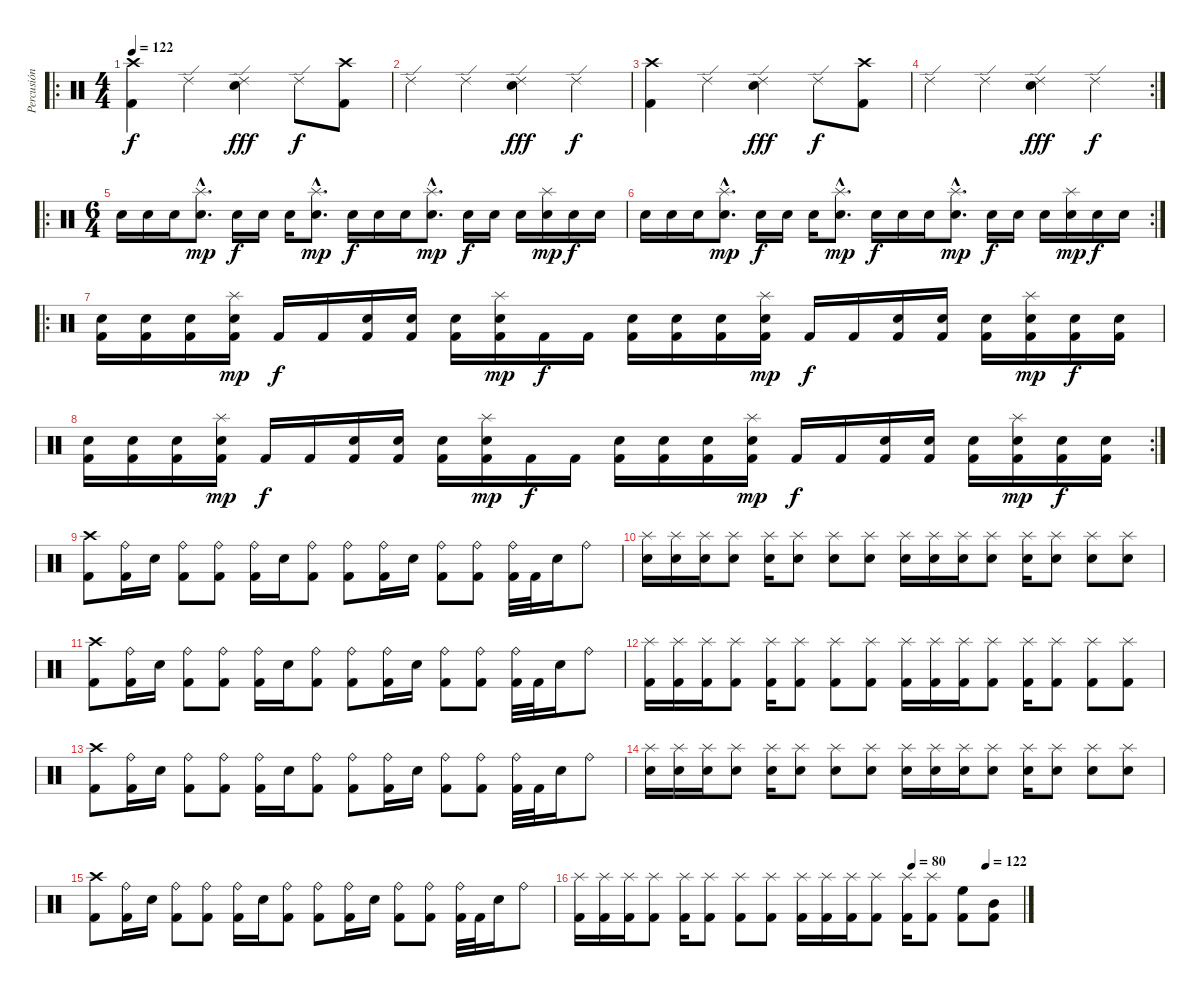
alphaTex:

\track ("Percusión" "Percusión") {instrument percussion}
\staff {score}
\articulation defaults
\ro
\ts (4 4)
\tempo 122
\clef neutral
\ks c
("Crash high (hit)" "Kick (hit) 2").4{dy f} "Ride (edge) 2".4 ("Ride (edge) 2" "Electric Snare (hit)").4{dy fff} "Ride (edge) 2".8{dy f} ("Crash high (hit)" "Kick (hit) 2").8 |
"Ride (edge) 2".4 "Ride (edge) 2".4 ("Ride (edge) 2" "Electric Snare (hit)").4{dy fff} "Ride (edge) 2".4{dy f} |
("Crash high (hit)" "Kick (hit) 2").4 "Ride (edge) 2".4 ("Ride (edge) 2" "Electric Snare (hit)").4{dy fff} "Ride (edge) 2".8{dy f} ("Crash high (hit)" "Kick (hit) 2").8 |
\rc 2 "Ride (edge) 2".4 "Ride (edge) 2".4
("Ride (edge) 2" "Electric Snare (hit)").4{dy fff} "Ride (edge) 2".4{dy f} |
\ro
\ts (6 4)
"Electric Snare (hit)".16 "Electric Snare (hit)".16 "Electric Snare (hit)".16 ("Splash (hit)"{hac} "Electric Snare (hit)"{hac}).8{d dy mp} "Electric Snare (hit)".16{dy f} "Electric Snare (hit)".16 "Electric Snare (hit)".16 ("Splash (hit)"{hac} "Electric Snare (hit)"{hac}).8{d dy mp} "Electric Snare (hit)".16{dy f} "Electric Snare (hit)".16 "Electric Snare (hit)".16 ("Splash (hit)"{hac} "Electric Snare (hit)"{hac}).8{d dy mp} "Electric Snare (hit)".16{dy f} "Electric Snare (hit)".16 "Electric Snare (hit)".16 ("Splash (hit)" "Electric Snare (hit)").16{dy mp} "Electric Snare (hit)".16{dy f} "Electric Snare (hit)".16 |
\rc 2 "Electric Snare (hit)".16 "Electric Snare (hit)".16 "Electric Snare (hit)".16
("Splash (hit)"{hac} "Electric Snare (hit)"{hac}).8{d dy mp} "Electric Snare (hit)".16{dy f} "Electric Snare (hit)".16 "Electric Snare (hit)".16 ("Splash (hit)"{hac} "Electric Snare (hit)"{hac}).8{d dy mp} "Electric Snare (hit)".16{dy f} "Electric Snare (hit)".16 "Electric Snare (hit)".16 ("Splash (hit)"{hac} "Electric Snare (hit)"{hac}).8{d dy mp} "Electric Snare (hit)".16{dy f} "Electric Snare (hit)".16 "Electric Snare (hit)".16 ("Splash (hit)" "Electric Snare (hit)").16{dy mp} "Electric Snare (hit)".16{dy f} "Electric Snare (hit)".16 |
\ro
("Electric Snare (hit)" "Kick (hit) 2").16 ("Electric Snare (hit)" "Kick (hit) 2").16 ("Electric Snare (hit)" "Kick (hit) 2").16 ("Splash (hit)" "Electric Snare (hit)" "Kick (hit) 2").16{dy mp} "Kick (hit) 2".16{dy f} "Kick (hit) 2".16 ("Electric Snare (hit)" "Kick (hit) 2").16 ("Electric Snare (hit)" "Kick (hit) 2").16 ("Electric Snare (hit)" "Kick (hit) 2").16 ("Splash (hit)" "Electric Snare (hit)" "Kick (hit) 2").16{dy mp} "Kick (hit) 2".16{dy f} "Kick (hit) 2".16 ("Electric Snare (hit)" "Kick (hit) 2").16 ("Electric Snare (hit)" "Kick (hit) 2").16 ("Electric Snare (hit)" "Kick (hit) 2").16 ("Splash (hit)" "Electric Snare (hit)" "Kick (hit) 2").16{dy mp} "Kick (hit) 2".16{dy f} "Kick (hit) 2".16 ("Electric Snare (hit)" "Kick (hit) 2").16 ("Electric Snare (hit)" "Kick (hit) 2").16 ("Electric Snare (hit)" "Kick (hit) 2").16 ("Splash (hit)" "Electric Snare (hit)" "Kick (hit) 2").16{dy mp} ("Electric Snare (hit)" "Kick (hit) 2").16{dy f} ("Electric Snare (hit)" "Kick (hit) 2").16 |
\rc 2
("Electric Snare (hit)" "Kick (hit) 2").16 ("Electric Snare (hit)" "Kick (hit) 2").16 ("Electric Snare (hit)" "Kick (hit) 2").16 ("Splash (hit)" "Electric Snare (hit)" "Kick (hit) 2").16{dy mp} "Kick (hit) 2".16{dy f} "Kick (hit) 2".16 ("Electric Snare (hit)" "Kick (hit) 2").16 ("Electric Snare (hit)" "Kick (hit) 2").16 ("Electric Snare (hit)" "Kick (hit) 2").16 ("Splash (hit)" "Electric Snare (hit)" "Kick (hit) 2").16{dy mp} "Kick (hit) 2".16{dy f} "Kick (hit) 2".16 ("Electric Snare (hit)" "Kick (hit) 2").16 ("Electric Snare (hit)" "Kick (hit) 2").16 ("Electric Snare (hit)" "Kick (hit) 2").16 ("Splash (hit)" "Electric Snare (hit)" "Kick (hit) 2").16{dy mp} "Kick (hit) 2".16{dy f} "Kick (hit) 2".16 ("Electric Snare (hit)" "Kick (hit) 2").16 ("Electric Snare (hit)" "Kick (hit) 2").16 ("Electric Snare (hit)" "Kick (hit) 2").16 ("Splash (hit)" "Electric Snare (hit)" "Kick (hit) 2").16{dy mp} ("Electric Snare (hit)" "Kick (hit) 2").16{dy f} ("Electric Snare (hit)" "Kick (hit) 2").16 |
("Crash high (hit)" "Kick (hit) 2").8 ("Ride (bell)" "Kick (hit) 2").16 "Electric Snare (hit)".16 ("Ride (bell)" "Kick (hit) 2").8 ("Ride (bell)" "Kick (hit) 2").8 ("Ride (bell)" "Kick (hit) 2").16 "Electric Snare (hit)".16 ("Ride (bell)" "Kick (hit) 2").8 ("Ride (bell)" "Kick (hit) 2").8 ("Ride (bell)" "Kick (hit) 2").16 "Electric Snare (hit)".16 ("Ride (bell)" "Kick (hit) 2").8 ("Ride (bell)" "Kick (hit) 2").8 ("Ride (bell)" "Kick (hit) 2").32 "Kick (hit) 2".32 "Electric Snare (hit)".16 "Ride (bell)".8 |
("Splash (hit)" "Electric Snare (hit)").16 ("Splash (hit)" "Electric Snare (hit)").16 ("Splash (hit)" "Electric Snare (hit)").16 ("Splash (hit)" "Electric Snare (hit)").8 ("Splash (hit)" "Electric Snare (hit)").16 ("Splash (hit)" "Electric Snare (hit)").8 ("Splash (hit)" "Electric Snare (hit)").8 ("Splash (hit)" "Electric Snare (hit)").8 ("Splash (hit)" "Electric Snare (hit)").16 ("Splash (hit)" "Electric Snare (hit)").16 ("Splash (hit)" "Electric Snare (hit)").16 ("Splash (hit)" "Electric Snare (hit)").8 ("Splash (hit)" "Electric Snare (hit)").16 ("Splash (hit)" "Electric Snare (hit)").8 ("Splash (hit)" "Electric Snare (hit)").8 ("Splash (hit)" "Electric Snare (hit)").8 |
("Crash high (hit)" "Kick (hit) 2").8 ("Ride (bell)" "Kick (hit) 2").16 "Electric Snare (hit)".16 ("Ride (bell)" "Kick (hit) 2").8 ("Ride (bell)" "Kick (hit) 2").8 ("Ride (bell)" "Kick (hit) 2").16 "Electric Snare (hit)".16 ("Ride (bell)" "Kick (hit) 2").8 ("Ride (bell)" "Kick (hit) 2").8 ("Ride (bell)" "Kick (hit) 2").16 "Electric Snare (hit)".16 ("Ride (bell)" "Kick (hit) 2").8 ("Ride (bell)" "Kick (hit) 2").8 ("Ride (bell)" "Kick (hit) 2").32 "Kick (hit) 2".32 "Electric Snare (hit)".16 "Ride (bell)".8 |
("Splash (hit)" "Kick (hit) 2").16 ("Splash (hit)" "Kick (hit) 2").16 ("Splash (hit)" "Kick (hit) 2").16 ("Splash (hit)" "Kick (hit) 2").8 ("Splash (hit)" "Kick (hit) 2").16 ("Splash (hit)" "Kick (hit) 2").8 ("Splash (hit)" "Kick (hit) 2").8 ("Splash (hit)" "Kick (hit) 2").8 ("Splash (hit)" "Kick (hit) 2").16 ("Splash (hit)" "Kick (hit) 2").16 ("Splash (hit)" "Kick (hit) 2").16 ("Splash (hit)" "Kick (hit) 2").8 ("Splash (hit)" "Kick (hit) 2").16 ("Splash (hit)" "Kick (hit) 2").8 ("Splash (hit)" "Kick (hit) 2").8 ("Splash (hit)" "Kick (hit) 2").8 |
("Crash high (hit)" "Kick (hit) 2").8 ("Ride (bell)" "Kick (hit) 2").16 "Electric Snare (hit)".16 ("Ride (bell)" "Kick (hit) 2").8 ("Ride (bell)" "Kick (hit) 2").8 ("Ride (bell)" "Kick (hit) 2").16 "Electric Snare (hit)".16 ("Ride (bell)" "Kick (hit) 2").8 ("Ride (bell)" "Kick (hit) 2").8 ("Ride (bell)" "Kick (hit) 2").16 "Electric Snare (hit)".16 ("Ride (bell)" "Kick (hit) 2").8 ("Ride (bell)" "Kick (hit) 2").8 ("Ride (bell)" "Kick (hit) 2").32 "Kick (hit) 2".32 "Electric Snare (hit)".16 "Ride (bell)".8 |
("Splash (hit)" "Electric Snare (hit)").16 ("Splash (hit)" "Electric Snare (hit)").16 ("Splash (hit)" "Electric Snare (hit)").16 ("Splash (hit)" "Electric Snare (hit)").8 ("Splash (hit)" "Electric Snare (hit)").16 ("Splash (hit)" "Electric Snare (hit)").8 ("Splash (hit)" "Electric Snare (hit)").8 ("Splash (hit)" "Electric Snare (hit)").8 ("Splash (hit)" "Electric Snare (hit)").16 ("Splash (hit)" "Electric Snare (hit)").16 ("Splash (hit)" "Electric Snare (hit)").16 ("Splash (hit)" "Electric Snare (hit)").8 ("Splash (hit)" "Electric Snare (hit)").16 ("Splash (hit)" "Electric Snare (hit)").8 ("Splash (hit)" "Electric Snare (hit)").8 ("Splash (hit)" "Electric Snare (hit)").8 |
("Crash high (hit)" "Kick (hit) 2").8 ("Ride (bell)" "Kick (hit) 2").16 "Electric Snare (hit)".16 ("Ride (bell)" "Kick (hit) 2").8 ("Ride (bell)" "Kick (hit) 2").8 ("Ride (bell)" "Kick (hit) 2").16 "Electric Snare (hit)".16 ("Ride (bell)" "Kick (hit) 2").8 ("Ride (bell)" "Kick (hit) 2").8 ("Ride (bell)" "Kick (hit) 2").16 "Electric Snare (hit)".16 ("Ride (bell)" "Kick (hit) 2").8 ("Ride (bell)" "Kick (hit) 2").8 ("Ride (bell)" "Kick (hit) 2").32 "Kick (hit) 2".32 "Electric Snare (hit)".16 "Ride (bell)".8 |
\tempo (80 0.75)
\tempo (122 0.9166666666666666)
("Splash (hit)" "Kick (hit) 2").16 ("Splash (hit)" "Kick (hit) 2").16 ("Splash (hit)" "Kick (hit) 2").16 ("Splash (hit)" "Kick (hit) 2").8 ("Splash (hit)" "Kick (hit) 2").16 ("Splash (hit)" "Kick (hit) 2").8 ("Splash (hit)" "Kick (hit) 2").8 ("Splash (hit)" "Kick (hit) 2").8 ("Splash (hit)" "Kick (hit) 2").16 ("Splash (hit)" "Kick (hit) 2").16 ("Splash (hit)" "Kick (hit) 2").16 ("Splash (hit)" "Kick (hit) 2").8 ("Splash (hit)" "Kick (hit) 2").16 ("Splash (hit)" "Kick (hit) 2").8 ("High Floor Tom (hit)" "Kick (hit) 2").8 ("Mid Tom (hit)" "Kick (hit) 2").8
